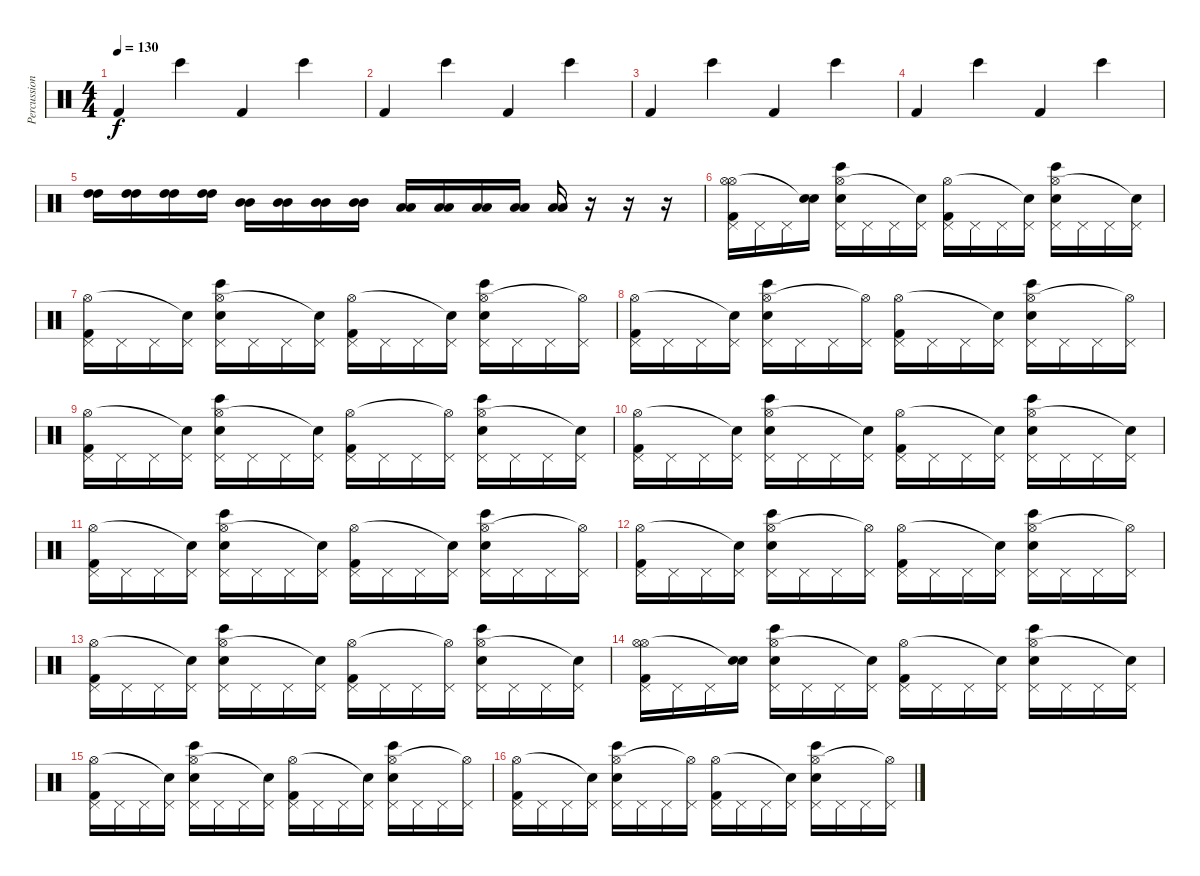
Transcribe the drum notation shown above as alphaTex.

\track ("Percussion" "Percussion") {instrument percussion}
\staff {score}
\articulation defaults
\ts (4 4)
\tempo 130
\clef neutral
\ks c "Kick (hit) 2".4{dy f} "Bongo High (hit)".4 "Kick (hit) 2".4 "Bongo High (hit)".4
|
"Kick (hit) 2".4 "Bongo High (hit)".4 "Kick (hit) 2".4 "Bongo High (hit)".4 |
"Kick (hit) 2".4 "Bongo High (hit)".4 "Kick (hit) 2".4 "Bongo High (hit)".4 |
"Kick (hit) 2".4 "Bongo High (hit)".4 "Kick (hit) 2".4 "Bongo High (hit)".4 |
("High Tom (hit)" "High Tom (hit)").16 ("High Tom (hit)" "High Tom (hit)").16 ("High Tom (hit)" "High Tom (hit)").16 ("High Tom (hit)" "High Tom (hit)").16 ("Mid Tom (hit)" "Mid Tom (hit)").16 ("Mid Tom (hit)" "Mid Tom (hit)").16 ("Mid Tom (hit)" "Mid Tom (hit)").16 ("Mid Tom (hit)" "Mid Tom (hit)").16 ("Low Tom (hit)" "Low Tom (hit)").16 ("Low Tom (hit)" "Low Tom (hit)").16 ("Low Tom (hit)" "Low Tom (hit)").16 ("Low Tom (hit)" "Low Tom (hit)").16 ("Low Floor Tom (hit)" "Low Floor Tom (hit)").16 r.16 r.16 r.16 |
("Pedal Hi-Hat (hit)" "Hi-Hat (open)" "Hi-Hat (open)" "Kick (hit) 2").16 "Pedal Hi-Hat (hit)".16 "Pedal Hi-Hat (hit)".16 ("Snare (hit)" "Snare (hit)"{t}).16 ("Pedal Hi-Hat (hit)" "Hi-Hat (open)" "Electric Snare (hit)" "Bongo High (hit)").16 "Pedal Hi-Hat (hit)".16 "Pedal Hi-Hat (hit)".16 ("Pedal Hi-Hat (hit)" "Snare (hit)"{t}).16 ("Pedal Hi-Hat (hit)" "Hi-Hat (open)" "Kick (hit) 2").16 "Pedal Hi-Hat (hit)".16 "Pedal Hi-Hat (hit)".16 ("Pedal Hi-Hat (hit)" "Snare (hit)"{t}).16 ("Pedal Hi-Hat (hit)" "Hi-Hat (open)" "Electric Snare (hit)" "Bongo High (hit)").16 "Pedal Hi-Hat (hit)".16 "Pedal Hi-Hat (hit)".16 ("Pedal Hi-Hat (hit)" "Snare (hit)"{t}).16 |
("Pedal Hi-Hat (hit)" "Hi-Hat (open)" "Kick (hit) 2").16 "Pedal Hi-Hat (hit)".16 "Pedal Hi-Hat (hit)".16 ("Pedal Hi-Hat (hit)" "Snare (hit)"{t}).16 ("Pedal Hi-Hat (hit)" "Hi-Hat (open)" "Electric Snare (hit)" "Bongo High (hit)").16 "Pedal Hi-Hat (hit)".16 "Pedal Hi-Hat (hit)".16 ("Pedal Hi-Hat (hit)" "Snare (hit)"{t}).16 ("Pedal Hi-Hat (hit)" "Hi-Hat (open)" "Kick (hit) 2").16 "Pedal Hi-Hat (hit)".16 "Pedal Hi-Hat (hit)".16 ("Pedal Hi-Hat (hit)" "Snare (hit)"{t}).16 ("Pedal Hi-Hat (hit)" "Hi-Hat (open)" "Electric Snare (hit)" "Bongo High (hit)").16 "Pedal Hi-Hat (hit)".16 "Pedal Hi-Hat (hit)".16 ("Pedal Hi-Hat (hit)" "Hi-Hat (open)"{t}).16 |
("Pedal Hi-Hat (hit)" "Hi-Hat (open)" "Kick (hit) 2").16 "Pedal Hi-Hat (hit)".16 "Pedal Hi-Hat (hit)".16 ("Pedal Hi-Hat (hit)" "Snare (hit)"{t}).16 ("Pedal Hi-Hat (hit)" "Hi-Hat (open)" "Electric Snare (hit)" "Bongo High (hit)").16 "Pedal Hi-Hat (hit)".16 "Pedal Hi-Hat (hit)".16 ("Pedal Hi-Hat (hit)" "Hi-Hat (open)"{t}).16 ("Pedal Hi-Hat (hit)" "Hi-Hat (open)" "Kick (hit) 2").16 "Pedal Hi-Hat (hit)".16 "Pedal Hi-Hat (hit)".16 ("Pedal Hi-Hat (hit)" "Snare (hit)"{t}).16 ("Pedal Hi-Hat (hit)" "Hi-Hat (open)" "Electric Snare (hit)" "Bongo High (hit)").16 "Pedal Hi-Hat (hit)".16 "Pedal Hi-Hat (hit)".16 ("Pedal Hi-Hat (hit)" "Hi-Hat (open)"{t}).16 |
("Pedal Hi-Hat (hit)" "Hi-Hat (open)" "Kick (hit) 2").16 "Pedal Hi-Hat (hit)".16 "Pedal Hi-Hat (hit)".16 ("Pedal Hi-Hat (hit)" "Snare (hit)"{t}).16 ("Pedal Hi-Hat (hit)" "Hi-Hat (open)" "Electric Snare (hit)" "Bongo High (hit)").16 "Pedal Hi-Hat (hit)".16 "Pedal Hi-Hat (hit)".16 ("Pedal Hi-Hat (hit)" "Snare (hit)"{t}).16 ("Pedal Hi-Hat (hit)" "Hi-Hat (open)" "Kick (hit) 2").16 "Pedal Hi-Hat (hit)".16 "Pedal Hi-Hat (hit)".16 ("Pedal Hi-Hat (hit)" "Hi-Hat (open)"{t}).16 ("Pedal Hi-Hat (hit)" "Hi-Hat (open)" "Electric Snare (hit)" "Bongo High (hit)").16 "Pedal Hi-Hat (hit)".16 "Pedal Hi-Hat (hit)".16 ("Pedal Hi-Hat (hit)" "Snare (hit)"{t}).16 |
("Pedal Hi-Hat (hit)" "Hi-Hat (open)" "Kick (hit) 2").16 "Pedal Hi-Hat (hit)".16 "Pedal Hi-Hat (hit)".16 ("Pedal Hi-Hat (hit)" "Snare (hit)"{t}).16 ("Pedal Hi-Hat (hit)" "Hi-Hat (open)" "Electric Snare (hit)" "Bongo High (hit)").16 "Pedal Hi-Hat (hit)".16 "Pedal Hi-Hat (hit)".16 ("Pedal Hi-Hat (hit)" "Snare (hit)"{t}).16 ("Pedal Hi-Hat (hit)" "Hi-Hat (open)" "Kick (hit) 2").16 "Pedal Hi-Hat (hit)".16 "Pedal Hi-Hat (hit)".16 ("Pedal Hi-Hat (hit)" "Snare (hit)"{t}).16 ("Pedal Hi-Hat (hit)" "Hi-Hat (open)" "Electric Snare (hit)" "Bongo High (hit)").16 "Pedal Hi-Hat (hit)".16 "Pedal Hi-Hat (hit)".16 ("Pedal Hi-Hat (hit)" "Snare (hit)"{t}).16 |
("Pedal Hi-Hat (hit)" "Hi-Hat (open)" "Kick (hit) 2").16 "Pedal Hi-Hat (hit)".16 "Pedal Hi-Hat (hit)".16 ("Pedal Hi-Hat (hit)" "Snare (hit)"{t}).16 ("Pedal Hi-Hat (hit)" "Hi-Hat (open)" "Electric Snare (hit)" "Bongo High (hit)").16 "Pedal Hi-Hat (hit)".16 "Pedal Hi-Hat (hit)".16 ("Pedal Hi-Hat (hit)" "Snare (hit)"{t}).16 ("Pedal Hi-Hat (hit)" "Hi-Hat (open)" "Kick (hit) 2").16 "Pedal Hi-Hat (hit)".16 "Pedal Hi-Hat (hit)".16 ("Pedal Hi-Hat (hit)" "Snare (hit)"{t}).16 ("Pedal Hi-Hat (hit)" "Hi-Hat (open)" "Electric Snare (hit)" "Bongo High (hit)").16 "Pedal Hi-Hat (hit)".16 "Pedal Hi-Hat (hit)".16 ("Pedal Hi-Hat (hit)" "Hi-Hat (open)"{t}).16 |
("Pedal Hi-Hat (hit)" "Hi-Hat (open)" "Kick (hit) 2").16 "Pedal Hi-Hat (hit)".16 "Pedal Hi-Hat (hit)".16 ("Pedal Hi-Hat (hit)" "Snare (hit)"{t}).16 ("Pedal Hi-Hat (hit)" "Hi-Hat (open)" "Electric Snare (hit)" "Bongo High (hit)").16 "Pedal Hi-Hat (hit)".16 "Pedal Hi-Hat (hit)".16 ("Pedal Hi-Hat (hit)" "Hi-Hat (open)"{t}).16 ("Pedal Hi-Hat (hit)" "Hi-Hat (open)" "Kick (hit) 2").16 "Pedal Hi-Hat (hit)".16 "Pedal Hi-Hat (hit)".16 ("Pedal Hi-Hat (hit)" "Snare (hit)"{t}).16 ("Pedal Hi-Hat (hit)" "Hi-Hat (open)" "Electric Snare (hit)" "Bongo High (hit)").16 "Pedal Hi-Hat (hit)".16 "Pedal Hi-Hat (hit)".16 ("Pedal Hi-Hat (hit)" "Hi-Hat (open)"{t}).16 |
("Pedal Hi-Hat (hit)" "Hi-Hat (open)" "Kick (hit) 2").16 "Pedal Hi-Hat (hit)".16 "Pedal Hi-Hat (hit)".16 ("Pedal Hi-Hat (hit)" "Snare (hit)"{t}).16 ("Pedal Hi-Hat (hit)" "Hi-Hat (open)" "Electric Snare (hit)" "Bongo High (hit)").16 "Pedal Hi-Hat (hit)".16 "Pedal Hi-Hat (hit)".16 ("Pedal Hi-Hat (hit)" "Snare (hit)"{t}).16 ("Pedal Hi-Hat (hit)" "Hi-Hat (open)" "Kick (hit) 2").16 "Pedal Hi-Hat (hit)".16 "Pedal Hi-Hat (hit)".16 ("Pedal Hi-Hat (hit)" "Hi-Hat (open)"{t}).16 ("Pedal Hi-Hat (hit)" "Hi-Hat (open)" "Electric Snare (hit)" "Bongo High (hit)").16 "Pedal Hi-Hat (hit)".16 "Pedal Hi-Hat (hit)".16 ("Pedal Hi-Hat (hit)" "Snare (hit)"{t}).16 |
("Pedal Hi-Hat (hit)" "Hi-Hat (open)" "Hi-Hat (open)" "Kick (hit) 2").16 "Pedal Hi-Hat (hit)".16 "Pedal Hi-Hat (hit)".16 ("Snare (hit)" "Snare (hit)"{t}).16 ("Pedal Hi-Hat (hit)" "Hi-Hat (open)" "Electric Snare (hit)" "Bongo High (hit)").16 "Pedal Hi-Hat (hit)".16 "Pedal Hi-Hat (hit)".16 ("Pedal Hi-Hat (hit)" "Snare (hit)"{t}).16 ("Pedal Hi-Hat (hit)" "Hi-Hat (open)" "Kick (hit) 2").16 "Pedal Hi-Hat (hit)".16 "Pedal Hi-Hat (hit)".16 ("Pedal Hi-Hat (hit)" "Snare (hit)"{t}).16 ("Pedal Hi-Hat (hit)" "Hi-Hat (open)" "Electric Snare (hit)" "Bongo High (hit)").16 "Pedal Hi-Hat (hit)".16 "Pedal Hi-Hat (hit)".16 ("Pedal Hi-Hat (hit)" "Snare (hit)"{t}).16 |
("Pedal Hi-Hat (hit)" "Hi-Hat (open)" "Kick (hit) 2").16 "Pedal Hi-Hat (hit)".16 "Pedal Hi-Hat (hit)".16 ("Pedal Hi-Hat (hit)" "Snare (hit)"{t}).16 ("Pedal Hi-Hat (hit)" "Hi-Hat (open)" "Electric Snare (hit)" "Bongo High (hit)").16 "Pedal Hi-Hat (hit)".16 "Pedal Hi-Hat (hit)".16 ("Pedal Hi-Hat (hit)" "Snare (hit)"{t}).16 ("Pedal Hi-Hat (hit)" "Hi-Hat (open)" "Kick (hit) 2").16 "Pedal Hi-Hat (hit)".16 "Pedal Hi-Hat (hit)".16 ("Pedal Hi-Hat (hit)" "Snare (hit)"{t}).16 ("Pedal Hi-Hat (hit)" "Hi-Hat (open)" "Electric Snare (hit)" "Bongo High (hit)").16 "Pedal Hi-Hat (hit)".16 "Pedal Hi-Hat (hit)".16 ("Pedal Hi-Hat (hit)" "Hi-Hat (open)"{t}).16 |
("Pedal Hi-Hat (hit)" "Hi-Hat (open)" "Kick (hit) 2").16 "Pedal Hi-Hat (hit)".16 "Pedal Hi-Hat (hit)".16 ("Pedal Hi-Hat (hit)" "Snare (hit)"{t}).16 ("Pedal Hi-Hat (hit)" "Hi-Hat (open)" "Electric Snare (hit)" "Bongo High (hit)").16 "Pedal Hi-Hat (hit)".16 "Pedal Hi-Hat (hit)".16 ("Pedal Hi-Hat (hit)" "Hi-Hat (open)"{t}).16 ("Pedal Hi-Hat (hit)" "Hi-Hat (open)" "Kick (hit) 2").16 "Pedal Hi-Hat (hit)".16 "Pedal Hi-Hat (hit)".16 ("Pedal Hi-Hat (hit)" "Snare (hit)"{t}).16 ("Pedal Hi-Hat (hit)" "Hi-Hat (open)" "Electric Snare (hit)" "Bongo High (hit)").16 "Pedal Hi-Hat (hit)".16 "Pedal Hi-Hat (hit)".16 ("Pedal Hi-Hat (hit)" "Hi-Hat (open)"{t}).16
